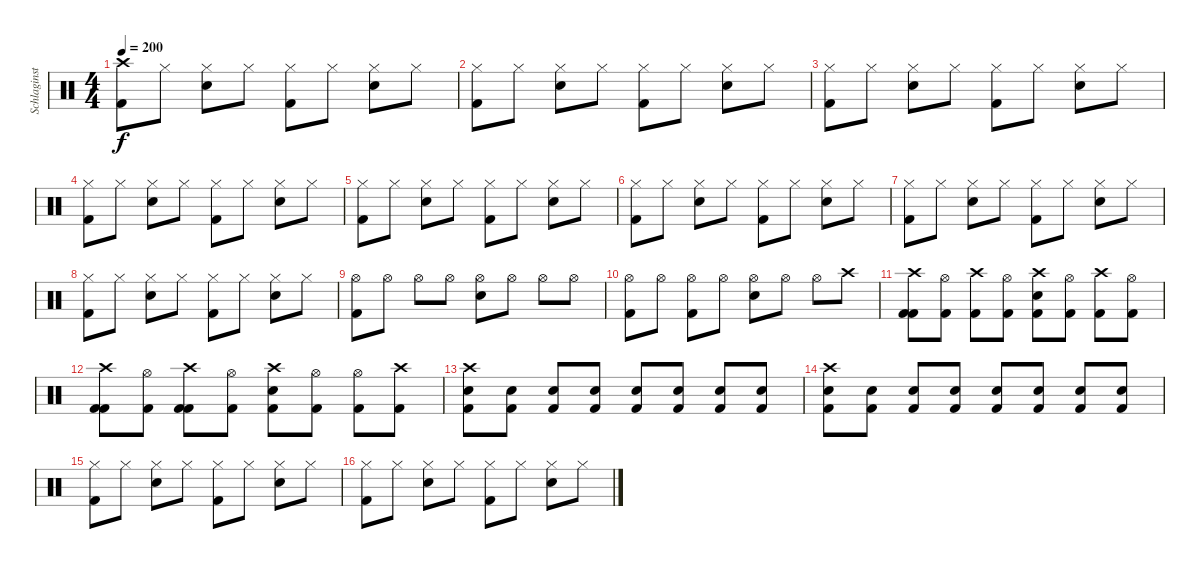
\track ("Schlaginstrumente - Auswahl" "Schlaginst") {instrument percussion}
\staff {score}
\articulation defaults
\ts (4 4)
\tempo 200
\clef neutral
\ks c
("Crash high (hit)" "Kick (hit) 2").8{dy f} "Hi-Hat (closed)".8 ("Hi-Hat (closed)" "Snare (hit) 2").8 "Hi-Hat (closed)".8 ("Hi-Hat (closed)" "Kick (hit) 2").8 "Hi-Hat (closed)".8 ("Hi-Hat (closed)" "Snare (hit) 2").8 "Hi-Hat (closed)".8 |
("Hi-Hat (closed)" "Kick (hit) 2").8 "Hi-Hat (closed)".8 ("Hi-Hat (closed)" "Snare (hit) 2").8 "Hi-Hat (closed)".8 ("Hi-Hat (closed)" "Kick (hit) 2").8 "Hi-Hat (closed)".8 ("Hi-Hat (closed)" "Snare (hit) 2").8 "Hi-Hat (closed)".8 |
("Hi-Hat (closed)" "Kick (hit) 2").8 "Hi-Hat (closed)".8 ("Hi-Hat (closed)" "Snare (hit) 2").8 "Hi-Hat (closed)".8 ("Hi-Hat (closed)" "Kick (hit) 2").8 "Hi-Hat (closed)".8 ("Hi-Hat (closed)" "Snare (hit) 2").8 "Hi-Hat (closed)".8 |
("Hi-Hat (closed)" "Kick (hit) 2").8 "Hi-Hat (closed)".8 ("Hi-Hat (closed)" "Snare (hit) 2").8 "Hi-Hat (closed)".8 ("Hi-Hat (closed)" "Kick (hit) 2").8 "Hi-Hat (closed)".8 ("Hi-Hat (closed)" "Snare (hit) 2").8 "Hi-Hat (closed)".8 |
("Hi-Hat (closed)" "Kick (hit) 2").8 "Hi-Hat (closed)".8 ("Hi-Hat (closed)" "Snare (hit) 2").8 "Hi-Hat (closed)".8 ("Hi-Hat (closed)" "Kick (hit) 2").8 "Hi-Hat (closed)".8 ("Hi-Hat (closed)" "Snare (hit) 2").8 "Hi-Hat (closed)".8 |
("Hi-Hat (closed)" "Kick (hit) 2").8 "Hi-Hat (closed)".8 ("Hi-Hat (closed)" "Snare (hit) 2").8 "Hi-Hat (closed)".8 ("Hi-Hat (closed)" "Kick (hit) 2").8 "Hi-Hat (closed)".8 ("Hi-Hat (closed)" "Snare (hit) 2").8 "Hi-Hat (closed)".8 |
("Hi-Hat (closed)" "Kick (hit) 2").8 "Hi-Hat (closed)".8 ("Hi-Hat (closed)" "Snare (hit) 2").8 "Hi-Hat (closed)".8 ("Hi-Hat (closed)" "Kick (hit) 2").8 "Hi-Hat (closed)".8 ("Hi-Hat (closed)" "Snare (hit) 2").8 "Hi-Hat (closed)".8 |
("Hi-Hat (closed)" "Kick (hit) 2").8 "Hi-Hat (closed)".8 ("Hi-Hat (closed)" "Snare (hit) 2").8 "Hi-Hat (closed)".8 ("Hi-Hat (closed)" "Kick (hit) 2").8 "Hi-Hat (closed)".8 ("Hi-Hat (closed)" "Snare (hit) 2").8 "Hi-Hat (closed)".8 |
("Hi-Hat (open)" "Kick (hit) 2").8 "Hi-Hat (open)".8 "Hi-Hat (open)".8 "Hi-Hat (open)".8 ("Hi-Hat (open)" "Snare (hit) 2").8 "Hi-Hat (open)".8 "Hi-Hat (open)".8 "Hi-Hat (open)".8 |
("Hi-Hat (open)" "Kick (hit) 2").8 "Hi-Hat (open)".8 ("Hi-Hat (open)" "Kick (hit) 2").8 "Hi-Hat (open)".8 ("Hi-Hat (open)" "Snare (hit) 2").8 "Hi-Hat (open)".8 "Hi-Hat (open)".8 "Crash high (hit)".8 |
("Kick (hit) 2" "Crash high (hit)" "Kick (hit) 2").8 ("Kick (hit) 2" "Hi-Hat (open)").8 ("Kick (hit) 2" "Crash high (hit)").8 ("Kick (hit) 2" "Hi-Hat (open)").8 ("Kick (hit) 2" "Crash high (hit)" "Snare (hit) 2").8 ("Kick (hit) 2" "Hi-Hat (open)").8 ("Kick (hit) 2" "Crash high (hit)").8 ("Kick (hit) 2" "Hi-Hat (open)").8 |
("Kick (hit) 2" "Crash high (hit)" "Kick (hit) 2").8 ("Kick (hit) 2" "Hi-Hat (open)").8 ("Kick (hit) 2" "Crash high (hit)" "Kick (hit) 2").8 ("Kick (hit) 2" "Hi-Hat (open)").8 ("Kick (hit) 2" "Crash high (hit)" "Snare (hit) 2").8 ("Kick (hit) 2" "Hi-Hat (open)").8 ("Kick (hit) 2" "Hi-Hat (open)").8 ("Kick (hit) 2" "Crash high (hit)").8 |
("Snare (hit) 2" "Crash high (hit)" "Kick (hit) 2").8 ("Snare (hit) 2" "Kick (hit) 2").8 ("Snare (hit) 2" "Kick (hit) 2").8 ("Snare (hit) 2" "Kick (hit) 2").8 ("Snare (hit) 2" "Kick (hit) 2").8 ("Snare (hit) 2" "Kick (hit) 2").8 ("Snare (hit) 2" "Kick (hit) 2").8 ("Snare (hit) 2" "Kick (hit) 2").8 |
("Snare (hit) 2" "Crash high (hit)" "Kick (hit) 2").8 ("Snare (hit) 2" "Kick (hit) 2").8 ("Snare (hit) 2" "Kick (hit) 2").8 ("Snare (hit) 2" "Kick (hit) 2").8 ("Snare (hit) 2" "Kick (hit) 2").8 ("Snare (hit) 2" "Kick (hit) 2").8 ("Snare (hit) 2" "Kick (hit) 2").8 ("Snare (hit) 2" "Kick (hit) 2").8 |
("Hi-Hat (closed)" "Kick (hit) 2").8 "Hi-Hat (closed)".8 ("Hi-Hat (closed)" "Snare (hit) 2").8 "Hi-Hat (closed)".8 ("Hi-Hat (closed)" "Kick (hit) 2").8 "Hi-Hat (closed)".8 ("Hi-Hat (closed)" "Snare (hit) 2").8 "Hi-Hat (closed)".8 |
("Hi-Hat (closed)" "Kick (hit) 2").8 "Hi-Hat (closed)".8 ("Hi-Hat (closed)" "Snare (hit) 2").8 "Hi-Hat (closed)".8 ("Hi-Hat (closed)" "Kick (hit) 2").8 "Hi-Hat (closed)".8 ("Hi-Hat (closed)" "Snare (hit) 2").8 "Hi-Hat (closed)".8
